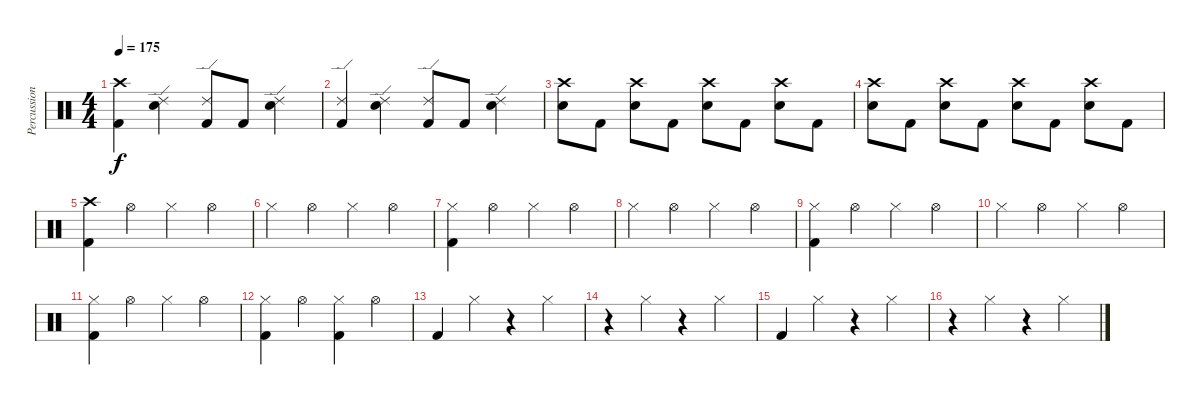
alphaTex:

\track ("Percussion" "Percussion") {instrument percussion}
\staff {score}
\articulation defaults
\ts (4 4)
\tempo 175
\clef neutral
\ks c
("Crash high (hit)" "Kick (hit) 2").4{dy f} ("Ride (edge) 2" "Snare (hit) 2").4 ("Ride (edge) 2" "Kick (hit) 2").8 "Kick (hit) 2".8 ("Ride (edge) 2" "Snare (hit) 2").4 |
("Ride (edge) 2" "Kick (hit) 2").4 ("Ride (edge) 2" "Snare (hit) 2").4 ("Ride (edge) 2" "Kick (hit) 2").8 "Kick (hit) 2".8 ("Ride (edge) 2" "Snare (hit) 2").4 |
("Crash high (hit)" "Snare (hit) 2").8 "Kick (hit) 2".8 ("Crash high (hit)" "Snare (hit) 2").8 "Kick (hit) 2".8 ("Crash high (hit)" "Snare (hit) 2").8 "Kick (hit) 2".8 ("Crash high (hit)" "Snare (hit) 2").8 "Kick (hit) 2".8 |
("Crash high (hit)" "Snare (hit) 2").8 "Kick (hit) 2".8 ("Crash high (hit)" "Snare (hit) 2").8 "Kick (hit) 2".8 ("Crash high (hit)" "Snare (hit) 2").8 "Kick (hit) 2".8 ("Crash high (hit)" "Snare (hit) 2").8 "Kick (hit) 2".8 |
("Crash high (hit)" "Kick (hit) 2").4{volume 7} "Hi-Hat (open)".4 "Hi-Hat (closed)".4 "Hi-Hat (open)".4 |
"Hi-Hat (closed)".4 "Hi-Hat (open)".4 "Hi-Hat (closed)".4 "Hi-Hat (open)".4 |
("Hi-Hat (closed)" "Kick (hit) 2").4 "Hi-Hat (open)".4 "Hi-Hat (closed)".4 "Hi-Hat (open)".4 |
"Hi-Hat (closed)".4 "Hi-Hat (open)".4 "Hi-Hat (closed)".4 "Hi-Hat (open)".4 |
("Hi-Hat (closed)" "Kick (hit) 2").4 "Hi-Hat (open)".4 "Hi-Hat (closed)".4 "Hi-Hat (open)".4 |
"Hi-Hat (closed)".4 "Hi-Hat (open)".4 "Hi-Hat (closed)".4 "Hi-Hat (open)".4 |
("Hi-Hat (closed)" "Kick (hit) 2").4 "Hi-Hat (open)".4 "Hi-Hat (closed)".4 "Hi-Hat (open)".4 |
("Hi-Hat (closed)" "Kick (hit) 2").4 "Hi-Hat (open)".4 ("Hi-Hat (closed)" "Kick (hit) 2").4 "Hi-Hat (open)".4 |
"Kick (hit) 2".4 "Hi-Hat (closed)".4 r.4 "Hi-Hat (closed)".4 |
r.4 "Hi-Hat (closed)".4 r.4 "Hi-Hat (closed)".4 |
"Kick (hit) 2".4 "Hi-Hat (closed)".4 r.4 "Hi-Hat (closed)".4 |
r.4 "Hi-Hat (closed)".4 r.4 "Hi-Hat (closed)".4
